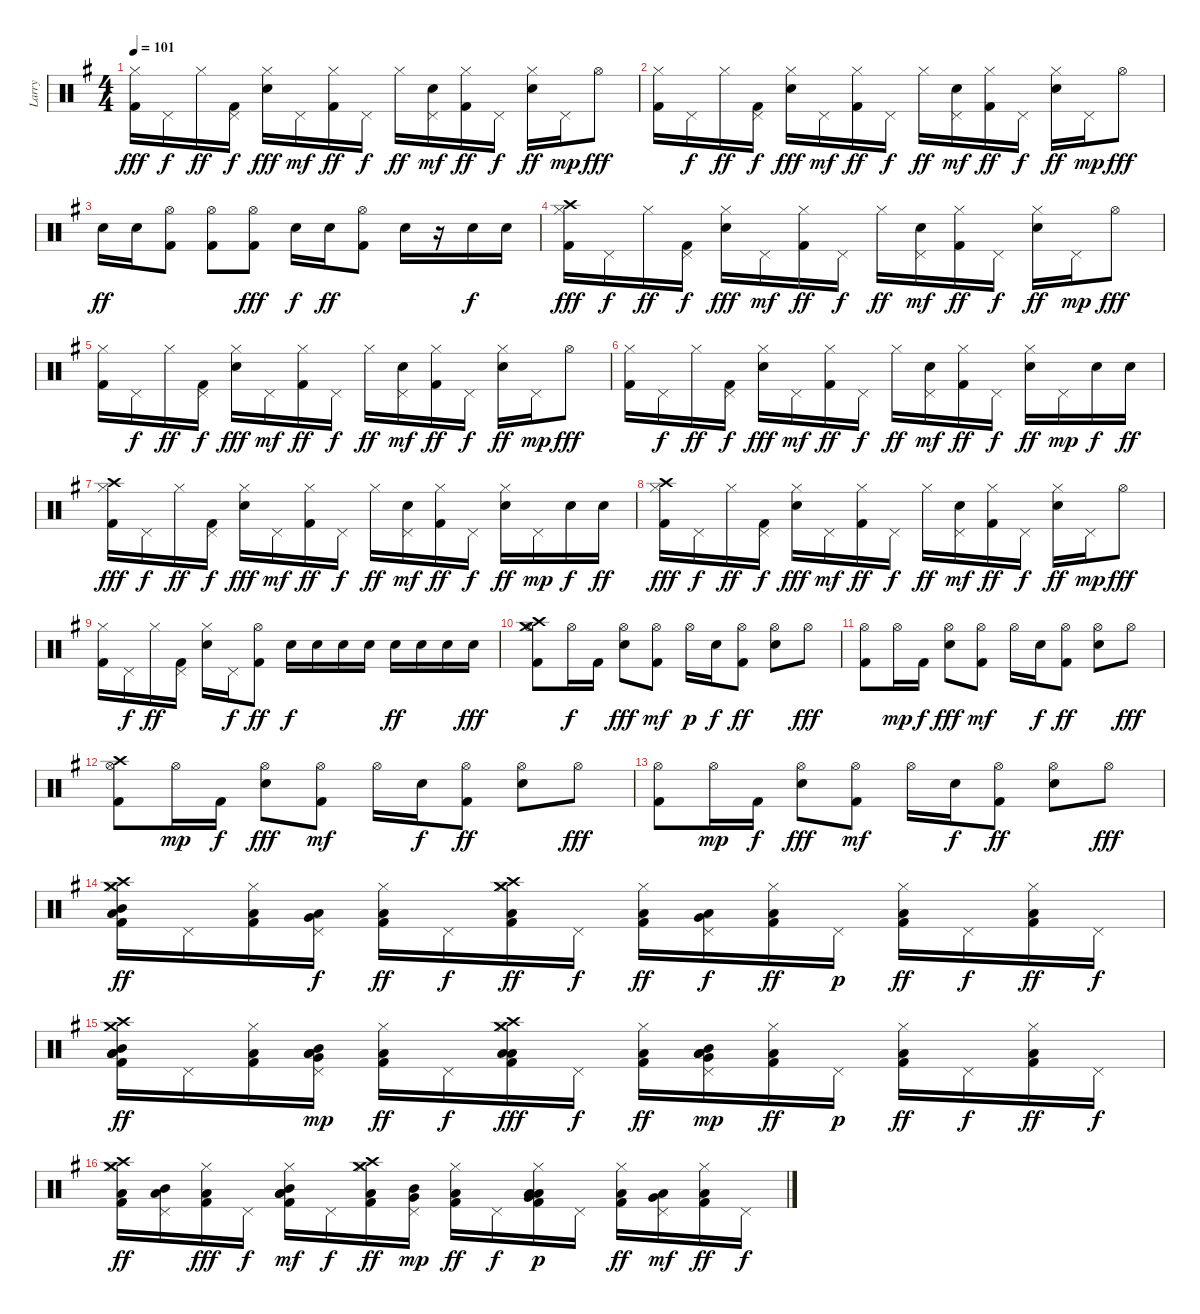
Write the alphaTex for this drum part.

\track ("Larry" "Larry") {instrument percussion}
\staff {score}
\articulation defaults
\ts (4 4)
\tempo 101
\clef neutral
\ks eminor
("Hi-Hat (closed)" "Kick (hit) 2").16{dy fff} "Pedal Hi-Hat (hit)".16{dy f} "Hi-Hat (closed)".16{dy ff} ("Kick (hit) 2" "Pedal Hi-Hat (hit)").16{dy f} ("Hi-Hat (closed)" "Snare (hit) 2").16{dy fff} "Pedal Hi-Hat (hit)".16{dy mf} ("Hi-Hat (closed)" "Kick (hit) 2").16{dy ff} "Pedal Hi-Hat (hit)".16{dy f} "Hi-Hat (closed)".16{dy ff} ("Snare (hit) 2" "Pedal Hi-Hat (hit)").16{dy mf} ("Hi-Hat (closed)" "Kick (hit) 2").16{dy ff} "Pedal Hi-Hat (hit)".16{dy f} ("Hi-Hat (closed)" "Snare (hit) 2").16{dy ff} "Pedal Hi-Hat (hit)".16{dy mp} "Hi-Hat (open)".8{dy fff} |
("Hi-Hat (closed)" "Kick (hit) 2").16 "Pedal Hi-Hat (hit)".16{dy f} "Hi-Hat (closed)".16{dy ff} ("Kick (hit) 2" "Pedal Hi-Hat (hit)").16{dy f} ("Hi-Hat (closed)" "Snare (hit) 2").16{dy fff} "Pedal Hi-Hat (hit)".16{dy mf} ("Hi-Hat (closed)" "Kick (hit) 2").16{dy ff} "Pedal Hi-Hat (hit)".16{dy f} "Hi-Hat (closed)".16{dy ff} ("Snare (hit) 2" "Pedal Hi-Hat (hit)").16{dy mf} ("Hi-Hat (closed)" "Kick (hit) 2").16{dy ff} "Pedal Hi-Hat (hit)".16{dy f} ("Hi-Hat (closed)" "Snare (hit) 2").16{dy ff} "Pedal Hi-Hat (hit)".16{dy mp} "Hi-Hat (open)".8{dy fff} |
"Snare (hit) 2".16{dy ff} "Snare (hit) 2".16 ("Hi-Hat (open)" "Kick (hit) 2").8 ("Hi-Hat (open)" "Kick (hit) 2").8 ("Hi-Hat (open)" "Kick (hit) 2").8{dy fff} "Snare (hit) 2".16{dy f} "Snare (hit) 2".16{dy ff} ("Hi-Hat (open)" "Kick (hit) 2").8 "Snare (hit) 2".16 r.16 "Snare (hit) 2".16{dy f} "Snare (hit) 2".16 |
("Hi-Hat (closed)" "Kick (hit) 2" "Crash high (hit)").16{dy fff} "Pedal Hi-Hat (hit)".16{dy f} "Hi-Hat (closed)".16{dy ff} ("Kick (hit) 2" "Pedal Hi-Hat (hit)").16{dy f} ("Hi-Hat (closed)" "Snare (hit) 2").16{dy fff} "Pedal Hi-Hat (hit)".16{dy mf} ("Hi-Hat (closed)" "Kick (hit) 2").16{dy ff} "Pedal Hi-Hat (hit)".16{dy f} "Hi-Hat (closed)".16{dy ff} ("Snare (hit) 2" "Pedal Hi-Hat (hit)").16{dy mf} ("Hi-Hat (closed)" "Kick (hit) 2").16{dy ff} "Pedal Hi-Hat (hit)".16{dy f} ("Hi-Hat (closed)" "Snare (hit) 2").16{dy ff} "Pedal Hi-Hat (hit)".16{dy mp} "Hi-Hat (open)".8{dy fff} |
("Hi-Hat (closed)" "Kick (hit) 2").16 "Pedal Hi-Hat (hit)".16{dy f} "Hi-Hat (closed)".16{dy ff} ("Kick (hit) 2" "Pedal Hi-Hat (hit)").16{dy f} ("Hi-Hat (closed)" "Snare (hit) 2").16{dy fff} "Pedal Hi-Hat (hit)".16{dy mf} ("Hi-Hat (closed)" "Kick (hit) 2").16{dy ff} "Pedal Hi-Hat (hit)".16{dy f} "Hi-Hat (closed)".16{dy ff} ("Snare (hit) 2" "Pedal Hi-Hat (hit)").16{dy mf} ("Hi-Hat (closed)" "Kick (hit) 2").16{dy ff} "Pedal Hi-Hat (hit)".16{dy f} ("Hi-Hat (closed)" "Snare (hit) 2").16{dy ff} "Pedal Hi-Hat (hit)".16{dy mp} "Hi-Hat (open)".8{dy fff} |
("Hi-Hat (closed)" "Kick (hit) 2").16 "Pedal Hi-Hat (hit)".16{dy f} "Hi-Hat (closed)".16{dy ff} ("Kick (hit) 2" "Pedal Hi-Hat (hit)").16{dy f} ("Hi-Hat (closed)" "Snare (hit) 2").16{dy fff} "Pedal Hi-Hat (hit)".16{dy mf} ("Hi-Hat (closed)" "Kick (hit) 2").16{dy ff} "Pedal Hi-Hat (hit)".16{dy f} "Hi-Hat (closed)".16{dy ff} ("Snare (hit) 2" "Pedal Hi-Hat (hit)").16{dy mf} ("Hi-Hat (closed)" "Kick (hit) 2").16{dy ff} "Pedal Hi-Hat (hit)".16{dy f} ("Hi-Hat (closed)" "Snare (hit) 2").16{dy ff} "Pedal Hi-Hat (hit)".16{dy mp} "Snare (hit) 2".16{dy f} "Snare (hit) 2".16{dy ff} |
("Hi-Hat (closed)" "Kick (hit) 2" "Crash high (hit)").16{dy fff} "Pedal Hi-Hat (hit)".16{dy f} "Hi-Hat (closed)".16{dy ff} ("Kick (hit) 2" "Pedal Hi-Hat (hit)").16{dy f} ("Hi-Hat (closed)" "Snare (hit) 2").16{dy fff} "Pedal Hi-Hat (hit)".16{dy mf} ("Hi-Hat (closed)" "Kick (hit) 2").16{dy ff} "Pedal Hi-Hat (hit)".16{dy f} "Hi-Hat (closed)".16{dy ff} ("Snare (hit) 2" "Pedal Hi-Hat (hit)").16{dy mf} ("Hi-Hat (closed)" "Kick (hit) 2").16{dy ff} "Pedal Hi-Hat (hit)".16{dy f} ("Hi-Hat (closed)" "Snare (hit) 2").16{dy ff} "Pedal Hi-Hat (hit)".16{dy mp} "Snare (hit) 2".16{dy f} "Snare (hit) 2".16{dy ff} |
("Hi-Hat (closed)" "Kick (hit) 2" "Crash high (hit)").16{dy fff} "Pedal Hi-Hat (hit)".16{dy f} "Hi-Hat (closed)".16{dy ff} ("Kick (hit) 2" "Pedal Hi-Hat (hit)").16{dy f} ("Hi-Hat (closed)" "Snare (hit) 2").16{dy fff} "Pedal Hi-Hat (hit)".16{dy mf} ("Hi-Hat (closed)" "Kick (hit) 2").16{dy ff} "Pedal Hi-Hat (hit)".16{dy f} "Hi-Hat (closed)".16{dy ff} ("Snare (hit) 2" "Pedal Hi-Hat (hit)").16{dy mf} ("Hi-Hat (closed)" "Kick (hit) 2").16{dy ff} "Pedal Hi-Hat (hit)".16{dy f} ("Hi-Hat (closed)" "Snare (hit) 2").16{dy ff} "Pedal Hi-Hat (hit)".16{dy mp} "Hi-Hat (open)".8{dy fff} |
("Hi-Hat (closed)" "Kick (hit) 2").16 "Pedal Hi-Hat (hit)".16{dy f} "Hi-Hat (closed)".16{dy ff} ("Kick (hit) 2" "Pedal Hi-Hat (hit)").16 ("Hi-Hat (closed)" "Snare (hit) 2").16 "Pedal Hi-Hat (hit)".16{dy f} ("Hi-Hat (open)" "Kick (hit) 2").8{dy ff} "Snare (hit) 2".16{dy f} "Snare (hit) 2".16 "Snare (hit) 2".16 "Snare (hit) 2".16 "Snare (hit) 2".16{dy ff} "Snare (hit) 2".16 "Snare (hit) 2".16 "Snare (hit) 2".16{dy fff} |
("Hi-Hat (open)" "Crash high (hit)" "Crash medium (hit)" "Kick (hit) 2").8 "Hi-Hat (open)".16{dy f} "Kick (hit) 2".16 ("Hi-Hat (open)" "Snare (hit) 2").8{dy fff} ("Hi-Hat (open)" "Kick (hit) 2").8{dy mf} "Hi-Hat (open)".16{dy p} "Snare (hit) 2".16{dy f} ("Hi-Hat (open)" "Kick (hit) 2").8{dy ff} ("Hi-Hat (open)" "Snare (hit) 2").8 "Hi-Hat (open)".8{dy fff} |
("Hi-Hat (open)" "Kick (hit) 2").8 "Hi-Hat (open)".16{dy mp} "Kick (hit) 2".16{dy f} ("Hi-Hat (open)" "Snare (hit) 2").8{dy fff} ("Hi-Hat (open)" "Kick (hit) 2").8{dy mf} "Hi-Hat (open)".16 "Snare (hit) 2".16{dy f} ("Hi-Hat (open)" "Kick (hit) 2").8{dy ff} ("Hi-Hat (open)" "Snare (hit) 2").8 "Hi-Hat (open)".8{dy fff} |
("Hi-Hat (open)" "Kick (hit) 2" "Crash high (hit)").8 "Hi-Hat (open)".16{dy mp} "Kick (hit) 2".16{dy f} ("Hi-Hat (open)" "Snare (hit) 2").8{dy fff} ("Hi-Hat (open)" "Kick (hit) 2").8{dy mf} "Hi-Hat (open)".16 "Snare (hit) 2".16{dy f} ("Hi-Hat (open)" "Kick (hit) 2").8{dy ff} ("Hi-Hat (open)" "Snare (hit) 2").8 "Hi-Hat (open)".8{dy fff} |
("Hi-Hat (open)" "Kick (hit) 2").8 "Hi-Hat (open)".16{dy mp} "Kick (hit) 2".16{dy f} ("Hi-Hat (open)" "Snare (hit) 2").8{dy fff} ("Hi-Hat (open)" "Kick (hit) 2").8{dy mf} "Hi-Hat (open)".16 "Snare (hit) 2".16{dy f} ("Hi-Hat (open)" "Kick (hit) 2").8{dy ff} ("Hi-Hat (open)" "Snare (hit) 2").8 "Hi-Hat (open)".8{dy fff} |
("Kick (hit) 2" "Low Floor Tom (hit)" "Crash medium (hit)" "Crash high (hit)" "Mid Tom (hit)" "Hi-Hat (closed)").16{dy ff} "Pedal Hi-Hat (hit)".16 ("Kick (hit) 2" "Low Floor Tom (hit)" "Hi-Hat (closed)").16 ("Low Tom (hit)" "Very Low Tom (hit)" "Pedal Hi-Hat (hit)").16{dy f} ("Kick (hit) 2" "Low Floor Tom (hit)" "Hi-Hat (closed)").16{dy ff} "Pedal Hi-Hat (hit)".16{dy f} ("Kick (hit) 2" "Low Floor Tom (hit)" "Crash high (hit)" "Crash medium (hit)" "Hi-Hat (closed)").16{dy ff} "Pedal Hi-Hat (hit)".16{dy f} ("Kick (hit) 2" "Low Floor Tom (hit)" "Hi-Hat (closed)").16{dy ff} ("Low Tom (hit)" "Very Low Tom (hit)" "Pedal Hi-Hat (hit)").16{dy f} ("Kick (hit) 2" "Low Floor Tom (hit)" "Hi-Hat (closed)").16{dy ff} "Pedal Hi-Hat (hit)".16{dy p} ("Kick (hit) 2" "Low Floor Tom (hit)" "Hi-Hat (closed)").16{dy ff} "Pedal Hi-Hat (hit)".16{dy f} ("Kick (hit) 2" "Low Floor Tom (hit)" "Hi-Hat (closed)").16{dy ff} "Pedal Hi-Hat (hit)".16{dy f} |
("Kick (hit) 2" "Low Floor Tom (hit)" "Mid Tom (hit)" "Low Tom (hit)" "Crash high (hit)" "Crash medium (hit)").16{dy ff} "Pedal Hi-Hat (hit)".16 ("Kick (hit) 2" "Low Floor Tom (hit)" "Hi-Hat (closed)").16 ("Low Tom (hit)" "Mid Tom (hit)" "Low Tom (hit)" "Very Low Tom (hit)" "Pedal Hi-Hat (hit)").16{dy mp} ("Kick (hit) 2" "Low Floor Tom (hit)" "Hi-Hat (closed)").16{dy ff} "Pedal Hi-Hat (hit)".16{dy f} ("Kick (hit) 2" "Low Floor Tom (hit)" "Low Tom (hit)" "Crash medium (hit)" "Crash high (hit)" "Hi-Hat (closed)").16{dy fff} "Pedal Hi-Hat (hit)".16{dy f} ("Kick (hit) 2" "Low Floor Tom (hit)" "Hi-Hat (closed)").16{dy ff} ("Low Tom (hit)" "Mid Tom (hit)" "Low Tom (hit)" "Very Low Tom (hit)" "Pedal Hi-Hat (hit)").16{dy mp} ("Kick (hit) 2" "Low Floor Tom (hit)" "Hi-Hat (closed)").16{dy ff} "Pedal Hi-Hat (hit)".16{dy p} ("Kick (hit) 2" "Low Floor Tom (hit)" "Hi-Hat (closed)").16{dy ff} "Pedal Hi-Hat (hit)".16{dy f} ("Kick (hit) 2" "Low Floor Tom (hit)" "Hi-Hat (closed)").16{dy ff} "Pedal Hi-Hat (hit)".16{dy f} |
("Kick (hit) 2" "Low Floor Tom (hit)" "Crash high (hit)" "Crash medium (hit)" "Hi-Hat (closed)").16{dy ff} ("Low Tom (hit)" "Mid Tom (hit)" "Pedal Hi-Hat (hit)").16 ("Kick (hit) 2" "Low Floor Tom (hit)" "Hi-Hat (closed)").16{dy fff} "Pedal Hi-Hat (hit)".16{dy f} ("Kick (hit) 2" "Low Floor Tom (hit)" "Low Tom (hit)" "Mid Tom (hit)" "Hi-Hat (closed)").16{dy mf} "Pedal Hi-Hat (hit)".16{dy f} ("Kick (hit) 2" "Low Floor Tom (hit)" "Crash high (hit)" "Crash medium (hit)" "Hi-Hat (closed)").16{dy ff} ("Very Low Tom (hit)" "Mid Tom (hit)" "Pedal Hi-Hat (hit)").16{dy mp} ("Low Floor Tom (hit)" "Kick (hit) 2" "Hi-Hat (closed)").16{dy ff} "Pedal Hi-Hat (hit)".16{dy f} ("Low Floor Tom (hit)" "Kick (hit) 2" "Very Low Tom (hit)" "Low Tom (hit)" "Hi-Hat (closed)").16{dy p} "Pedal Hi-Hat (hit)".16 ("Low Floor Tom (hit)" "Kick (hit) 2" "Hi-Hat (closed)").16{dy ff} ("Very Low Tom (hit)" "Low Tom (hit)" "Pedal Hi-Hat (hit)").16{dy mf} ("Low Floor Tom (hit)" "Kick (hit) 2" "Hi-Hat (closed)").16{dy ff} "Pedal Hi-Hat (hit)".16{dy f}
